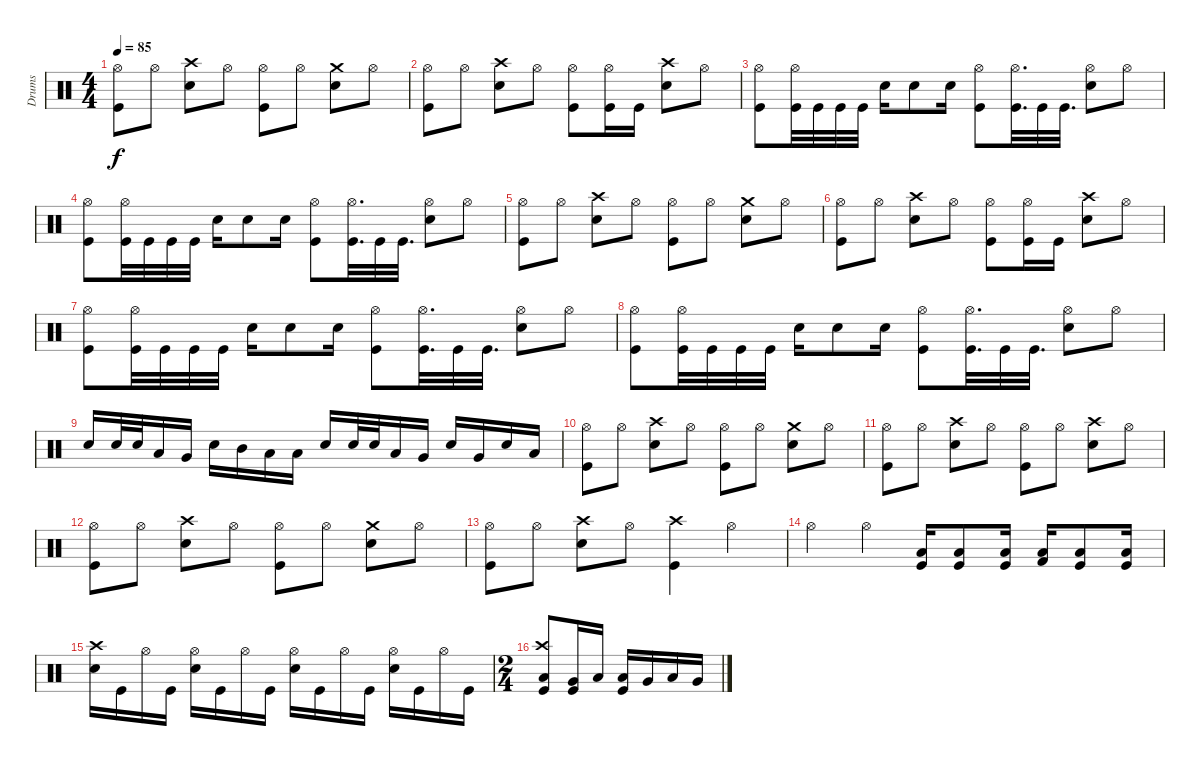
\track ("Drums" "Drums") {instrument percussion}
\staff {score}
\articulation defaults
\ts (4 4)
\tempo 85
\clef neutral
\ks c
("Kick (hit)" "Hi-Hat (open)").8{dy f} "Hi-Hat (open)".8 ("Crash high (hit)" "Snare (hit) 2").8 "Hi-Hat (open)".8 ("Kick (hit)" "Hi-Hat (open)").8 "Hi-Hat (open)".8 ("Crash medium (hit)" "Snare (hit) 2").8 "Hi-Hat (open)".8 |
("Kick (hit)" "Hi-Hat (open)").8 "Hi-Hat (open)".8 ("Snare (hit) 2" "Crash high (hit)").8 "Hi-Hat (open)".8 ("Kick (hit)" "Hi-Hat (open)").8 ("Kick (hit)" "Hi-Hat (open)").16 "Kick (hit)".16 ("Crash high (hit)" "Snare (hit) 2").8 "Hi-Hat (open)".8 |
("Kick (hit)" "Hi-Hat (open)").8 ("Hi-Hat (open)" "Kick (hit)").32 "Kick (hit)".32 "Kick (hit)".32 "Kick (hit)".32 "Snare (hit) 2".16 "Snare (hit) 2".8 "Snare (hit) 2".16 ("Hi-Hat (open)" "Kick (hit)").8 ("Kick (hit)" "Hi-Hat (open)").32{d} "Kick (hit)".32 "Kick (hit)".32{d} ("Snare (hit) 2" "Hi-Hat (open)").8 "Hi-Hat (open)".8 |
("Kick (hit)" "Hi-Hat (open)").8 ("Hi-Hat (open)" "Kick (hit)").32 "Kick (hit)".32 "Kick (hit)".32 "Kick (hit)".32 "Snare (hit) 2".16 "Snare (hit) 2".8 "Snare (hit) 2".16 ("Hi-Hat (open)" "Kick (hit)").8 ("Kick (hit)" "Hi-Hat (open)").32{d} "Kick (hit)".32 "Kick (hit)".32{d} ("Snare (hit) 2" "Hi-Hat (open)").8 "Hi-Hat (open)".8 |
("Kick (hit)" "Hi-Hat (open)").8 "Hi-Hat (open)".8 ("Crash high (hit)" "Snare (hit) 2").8 "Hi-Hat (open)".8 ("Kick (hit)" "Hi-Hat (open)").8 "Hi-Hat (open)".8 ("Crash medium (hit)" "Snare (hit) 2").8 "Hi-Hat (open)".8 |
("Kick (hit)" "Hi-Hat (open)").8 "Hi-Hat (open)".8 ("Snare (hit) 2" "Crash high (hit)").8 "Hi-Hat (open)".8 ("Kick (hit)" "Hi-Hat (open)").8 ("Kick (hit)" "Hi-Hat (open)").16 "Kick (hit)".16 ("Crash high (hit)" "Snare (hit) 2").8 "Hi-Hat (open)".8 |
("Kick (hit)" "Hi-Hat (open)").8 ("Hi-Hat (open)" "Kick (hit)").32 "Kick (hit)".32 "Kick (hit)".32 "Kick (hit)".32 "Snare (hit) 2".16 "Snare (hit) 2".8 "Snare (hit) 2".16 ("Hi-Hat (open)" "Kick (hit)").8 ("Kick (hit)" "Hi-Hat (open)").32{d} "Kick (hit)".32 "Kick (hit)".32{d} ("Snare (hit) 2" "Hi-Hat (open)").8 "Hi-Hat (open)".8 |
("Kick (hit)" "Hi-Hat (open)").8 ("Hi-Hat (open)" "Kick (hit)").32 "Kick (hit)".32 "Kick (hit)".32 "Kick (hit)".32 "Snare (hit) 2".16 "Snare (hit) 2".8 "Snare (hit) 2".16 ("Hi-Hat (open)" "Kick (hit)").8 ("Kick (hit)" "Hi-Hat (open)").32{d} "Kick (hit)".32 "Kick (hit)".32{d} ("Snare (hit) 2" "Hi-Hat (open)").8 "Hi-Hat (open)".8 |
"Snare (hit) 2".16 "Snare (hit) 2".32 "Snare (hit) 2".32 "Low Tom (hit)".16 "Very Low Tom (hit)".16 "Snare (hit) 2".16 "Mid Tom (hit)".16 "Low Tom (hit)".16 "Low Floor Tom (hit)".16 "Snare (hit) 2".16 "Snare (hit) 2".32 "Snare (hit) 2".32 "Low Tom (hit)".16 "Very Low Tom (hit)".16 "Snare (hit) 2".16 "Very Low Tom (hit)".16 "Snare (hit) 2".16 "Low Floor Tom (hit)".16 |
("Kick (hit)" "Hi-Hat (open)").8 "Hi-Hat (open)".8 ("Crash high (hit)" "Snare (hit) 2").8 "Hi-Hat (open)".8 ("Kick (hit)" "Hi-Hat (open)").8 "Hi-Hat (open)".8 ("Crash medium (hit)" "Snare (hit) 2").8 "Hi-Hat (open)".8 |
("Kick (hit)" "Hi-Hat (open)").8 "Hi-Hat (open)".8 ("Crash high (hit)" "Snare (hit) 2").8 "Hi-Hat (open)".8 ("Kick (hit)" "Hi-Hat (open)").8 "Hi-Hat (open)".8 ("Crash high (hit)" "Snare (hit) 2").8 "Hi-Hat (open)".8 |
("Kick (hit)" "Hi-Hat (open)").8 "Hi-Hat (open)".8 ("Crash high (hit)" "Snare (hit) 2").8 "Hi-Hat (open)".8 ("Kick (hit)" "Hi-Hat (open)").8 "Hi-Hat (open)".8 ("Crash medium (hit)" "Snare (hit) 2").8 "Hi-Hat (open)".8 |
("Kick (hit)" "Hi-Hat (open)").8 "Hi-Hat (open)".8 ("Crash high (hit)" "Snare (hit) 2").8 "Hi-Hat (open)".8 ("Crash high (hit)" "Kick (hit)").4 "Hi-Hat (open)".4 |
"Hi-Hat (open)".4 "Hi-Hat (open)".4 ("Kick (hit)" "Low Floor Tom (hit)").16 ("Kick (hit)" "Low Floor Tom (hit)").8 ("Kick (hit)" "Low Floor Tom (hit)").16 ("Low Floor Tom (hit)" "Kick (hit) 2").16 ("Kick (hit)" "Low Floor Tom (hit)").8 ("Kick (hit)" "Low Floor Tom (hit)").16 |
("Snare (hit) 2" "Crash high (hit)").16 "Kick (hit)".16 "Hi-Hat (open)".16 "Kick (hit)".16 ("Snare (hit) 2" "Hi-Hat (open)").16 "Kick (hit)".16 "Hi-Hat (open)".16 "Kick (hit)".16 ("Snare (hit) 2" "Hi-Hat (open)").16 "Kick (hit)".16 "Hi-Hat (open)".16 "Kick (hit)".16 ("Snare (hit) 2" "Hi-Hat (open)").16 "Kick (hit)".16 "Hi-Hat (open)".16 "Kick (hit)".16 |
\ts (2 4)
("Low Tom (hit)" "Kick (hit)" "Crash high (hit)").8 ("Kick (hit)" "Very Low Tom (hit)").16 "Low Floor Tom (hit)".16 ("Low Tom (hit)" "Kick (hit)").16 "Very Low Tom (hit)".16 "Low Floor Tom (hit)".16 "Very Low Tom (hit)".16
